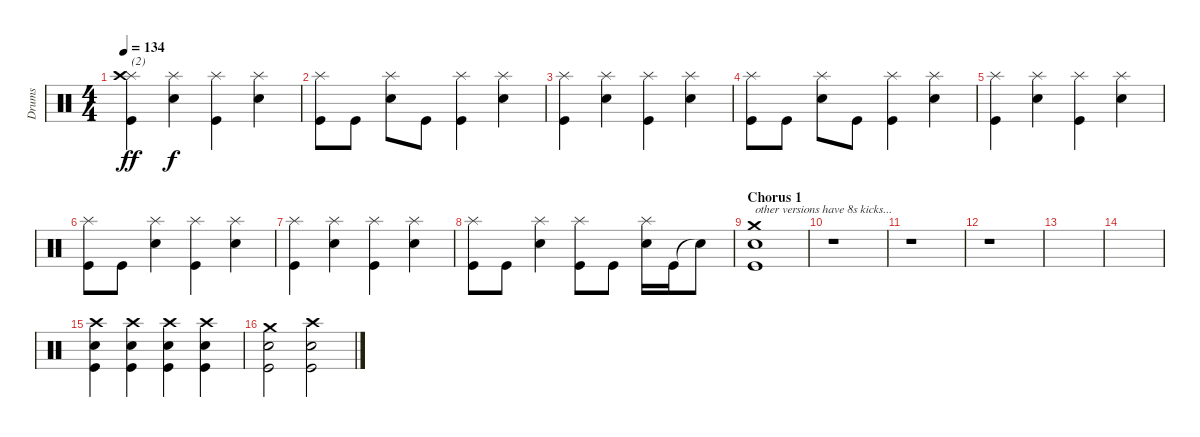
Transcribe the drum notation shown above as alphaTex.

\track ("Drums" "Drums") {instrument percussion}
\staff {score}
\articulation defaults
\ts (4 4)
\tempo 134
\clef neutral
\ks c
("Splash (hit)" "Crash high (hit)" "Kick (hit)").4{txt "(2)" dy ff} ("Splash (hit)" "Snare (hit) 2").4{dy f} ("Splash (hit)" "Kick (hit)").4 ("Splash (hit)" "Snare (hit) 2").4 |
("Splash (hit)" "Kick (hit)").8 "Kick (hit)".8 ("Splash (hit)" "Snare (hit) 2").8 "Kick (hit)".8 ("Splash (hit)" "Kick (hit)").4 ("Splash (hit)" "Snare (hit) 2").4 |
("Splash (hit)" "Kick (hit)").4 ("Splash (hit)" "Snare (hit) 2").4 ("Splash (hit)" "Kick (hit)").4 ("Splash (hit)" "Snare (hit) 2").4 |
("Splash (hit)" "Kick (hit)").8 "Kick (hit)".8 ("Splash (hit)" "Snare (hit) 2").8 "Kick (hit)".8 ("Splash (hit)" "Kick (hit)").4 ("Splash (hit)" "Snare (hit) 2").4 |
("Splash (hit)" "Kick (hit)").4 ("Splash (hit)" "Snare (hit) 2").4 ("Splash (hit)" "Kick (hit)").4 ("Splash (hit)" "Snare (hit) 2").4 |
("Splash (hit)" "Kick (hit)").8 "Kick (hit)".8 ("Splash (hit)" "Snare (hit) 2").4 ("Splash (hit)" "Kick (hit)").4 ("Splash (hit)" "Snare (hit) 2").4 |
("Splash (hit)" "Kick (hit)").4 ("Splash (hit)" "Snare (hit) 2").4 ("Splash (hit)" "Kick (hit)").4 ("Splash (hit)" "Snare (hit) 2").4 |
("Splash (hit)" "Kick (hit)").8 "Kick (hit)".8 ("Splash (hit)" "Snare (hit) 2").4 ("Splash (hit)" "Kick (hit)").8 "Kick (hit)".8 ("Splash (hit)" "Snare (hit) 2").16 "Kick (hit)".16 "Snare (hit)"{t}.8 |
\section ("" "Chorus 1")
("Crash medium (hit)" "Snare (hit) 2" "Kick (hit)").1{txt "other versions have 8s kicks..."} |
r.1 |
r.1 |
r.1 |
|
|
("Crash high (hit)" "Snare (hit) 2" "Kick (hit)").4 ("Crash high (hit)" "Snare (hit) 2" "Kick (hit)").4 ("Crash high (hit)" "Snare (hit) 2" "Kick (hit)").4 ("Crash high (hit)" "Snare (hit) 2" "Kick (hit)").4 |
("Crash medium (hit)" "Snare (hit) 2" "Kick (hit)").2 ("Crash high (hit)" "Snare (hit) 2" "Kick (hit)").2
